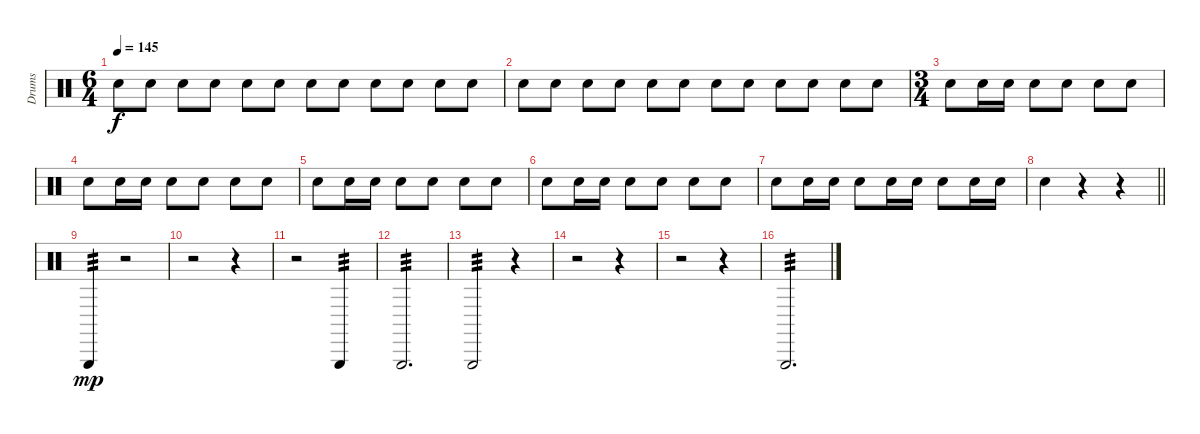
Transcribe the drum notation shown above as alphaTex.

\track ("Drums" "Drums") {instrument percussion}
\staff {score}
\articulation defaults
\ts (6 4)
\tempo 145
\clef neutral
\ks aminor "Hand Clap (hit)".8{dy f} "Hand Clap (hit)".8 "Hand Clap (hit)".8 "Hand Clap (hit)".8 "Hand Clap (hit)".8 "Hand Clap (hit)".8 "Hand Clap (hit)".8 "Hand Clap (hit)".8 "Hand Clap (hit)".8 "Hand Clap (hit)".8 "Hand Clap (hit)".8 "Hand Clap (hit)".8
|
"Hand Clap (hit)".8 "Hand Clap (hit)".8 "Hand Clap (hit)".8 "Hand Clap (hit)".8 "Hand Clap (hit)".8 "Hand Clap (hit)".8 "Hand Clap (hit)".8 "Hand Clap (hit)".8 "Hand Clap (hit)".8 "Hand Clap (hit)".8 "Hand Clap (hit)".8 "Hand Clap (hit)".8 |
\ts (3 4)
"Hand Clap (hit)".8 "Hand Clap (hit)".16 "Hand Clap (hit)".16 "Hand Clap (hit)".8 "Hand Clap (hit)".8 "Hand Clap (hit)".8 "Hand Clap (hit)".8 |
"Hand Clap (hit)".8 "Hand Clap (hit)".16 "Hand Clap (hit)".16 "Hand Clap (hit)".8 "Hand Clap (hit)".8 "Hand Clap (hit)".8 "Hand Clap (hit)".8 |
"Hand Clap (hit)".8 "Hand Clap (hit)".16 "Hand Clap (hit)".16 "Hand Clap (hit)".8 "Hand Clap (hit)".8 "Hand Clap (hit)".8 "Hand Clap (hit)".8 |
"Hand Clap (hit)".8 "Hand Clap (hit)".16 "Hand Clap (hit)".16 "Hand Clap (hit)".8 "Hand Clap (hit)".8 "Hand Clap (hit)".8 "Hand Clap (hit)".8 |
"Hand Clap (hit)".8 "Hand Clap (hit)".16 "Hand Clap (hit)".16 "Hand Clap (hit)".8 "Hand Clap (hit)".16 "Hand Clap (hit)".16 "Hand Clap (hit)".8 "Hand Clap (hit)".16 "Hand Clap (hit)".16 |
\barLineRight lightlight "Hand Clap (hit)".4
r.4 r.4 |
"Triangle (hit)".4{tp 3 dy mp} r.2 |
r.2 r.4 |
r.2 "Triangle (hit)".4{tp 3} |
"Triangle (hit)".2{d tp 3} |
"Triangle (hit)".2{tp 3} r.4 |
r.2 r.4 |
r.2 r.4 |
"Triangle (hit)".2{d tp 3}
